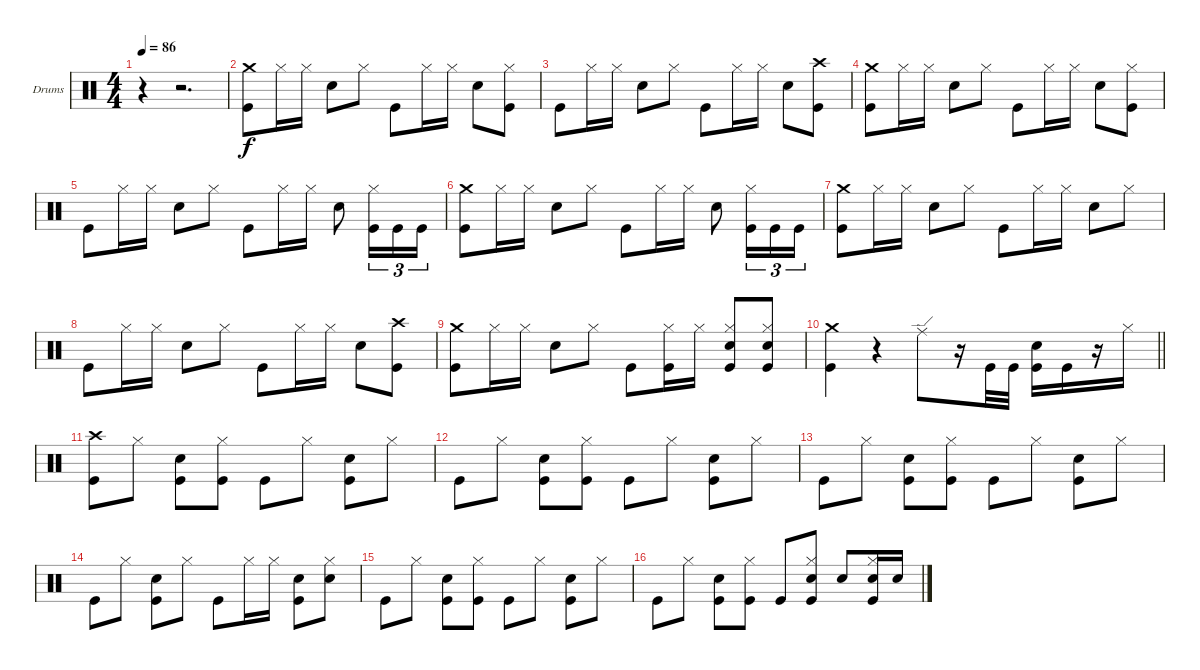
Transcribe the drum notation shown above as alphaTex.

\defaultSystemsLayout 4
\bracketExtendMode groupsimilarinstruments
\firstSystemTrackNameOrientation horizontal
\otherSystemsTrackNameOrientation horizontal
\track ("Drumkit" "Drums") {instrument percussion}
\staff {score}
\articulation defaults
\ts (4 4)
\tempo 86
\clef neutral
\scale
0.472222
\ks c
r.4{dy f} r.2{d} |
\scale
0.263889 ("Crash medium (hit)" "Kick (hit)").8 "Hi-Hat (closed)".16 "Hi-Hat (closed)".16 "Snare (hit) 2".8 "Hi-Hat (closed)".8 "Kick (hit)".8 "Hi-Hat (closed)".16 "Hi-Hat (closed)".16 "Snare (hit) 2".8 ("Hi-Hat (closed)" "Kick (hit)").8 |
\scale
0.263889 "Kick (hit)".8 "Hi-Hat (closed)".16 "Hi-Hat (closed)".16 "Snare (hit) 2".8 "Hi-Hat (closed)".8 "Kick (hit)".8 "Hi-Hat (closed)".16 "Hi-Hat (closed)".16 "Snare (hit) 2".8 ("Crash high (hit)" "Kick (hit)").8 |
\scale
0.333333 ("Crash medium (hit)" "Kick (hit)").8 "Hi-Hat (closed)".16 "Hi-Hat (closed)".16 "Snare (hit) 2".8 "Hi-Hat (closed)".8 "Kick (hit)".8 "Hi-Hat (closed)".16 "Hi-Hat (closed)".16 "Snare (hit) 2".8 ("Hi-Hat (closed)" "Kick (hit)").8 |
\scale
0.333333 "Kick (hit)".8 "Hi-Hat (closed)".16 "Hi-Hat (closed)".16 "Snare (hit) 2".8 "Hi-Hat (closed)".8 "Kick (hit)".8 "Hi-Hat (closed)".16 "Hi-Hat (closed)".16 "Snare (hit) 2".8 ("Hi-Hat (closed)" "Kick (hit)").16{tu (3 2)} "Kick (hit)".16{tu (3 2)} "Kick (hit)".16{tu (3 2)} |
\scale
0.333333 ("Crash medium (hit)" "Kick (hit)").8 "Hi-Hat (closed)".16 "Hi-Hat (closed)".16 "Snare (hit) 2".8 "Hi-Hat (closed)".8 "Kick (hit)".8 "Hi-Hat (closed)".16 "Hi-Hat (closed)".16 "Snare (hit) 2".8 ("Hi-Hat (closed)" "Kick (hit)").16{tu (3 2)} "Kick (hit)".16{tu (3 2)} "Kick (hit)".16{tu (3 2)} |
\scale
0.333333 ("Crash medium (hit)" "Kick (hit)").8 "Hi-Hat (closed)".16 "Hi-Hat (closed)".16 "Snare (hit) 2".8 "Hi-Hat (closed)".8 "Kick (hit)".8 "Hi-Hat (closed)".16 "Hi-Hat (closed)".16 "Snare (hit) 2".8 "Hi-Hat (closed)".8 |
\scale
0.333333 "Kick (hit)".8 "Hi-Hat (closed)".16 "Hi-Hat (closed)".16 "Snare (hit) 2".8 "Hi-Hat (closed)".8 "Kick (hit)".8 "Hi-Hat (closed)".16 "Hi-Hat (closed)".16 "Snare (hit) 2".8 ("Crash high (hit)" "Kick (hit)").8 |
\scale
0.333333 ("Crash medium (hit)" "Kick (hit)").8 "Hi-Hat (closed)".16 "Hi-Hat (closed)".16 "Snare (hit) 2".8 "Hi-Hat (closed)".8 "Kick (hit)".8 ("Hi-Hat (closed)" "Kick (hit)").16 "Hi-Hat (closed)".16 ("Hi-Hat (closed)" "Snare (hit) 2" "Kick (hit)").8 ("Hi-Hat (closed)" "Snare (hit) 2" "Kick (hit)").8 |
\scale
0.333333
\barLineRight lightlight
("Crash medium (hit)" "Kick (hit)").4 r.4 "Ride (edge)".8 r.16 "Kick (hit)".32 "Kick (hit)".32 ("Snare (hit) 2" "Kick (hit)").16 "Kick (hit)".16 r.16 "Hi-Hat (closed)".16 |
\scale
0.333333 ("Crash high (hit)" "Kick (hit)").8 "Hi-Hat (closed)".8 ("Snare (hit) 2" "Kick (hit)").8 ("Hi-Hat (closed)" "Kick (hit)").8 "Kick (hit)".8 "Hi-Hat (closed)".8 ("Snare (hit) 2" "Kick (hit)").8 "Hi-Hat (closed)".8 |
\scale
0.333333 "Kick (hit)".8 "Hi-Hat (closed)".8 ("Snare (hit) 2" "Kick (hit)").8 ("Hi-Hat (closed)" "Kick (hit)").8 "Kick (hit)".8 "Hi-Hat (closed)".8 ("Snare (hit) 2" "Kick (hit)").8 "Hi-Hat (closed)".8 |
\scale
0.333333 "Kick (hit)".8 "Hi-Hat (closed)".8 ("Snare (hit) 2" "Kick (hit)").8 ("Hi-Hat (closed)" "Kick (hit)").8 "Kick (hit)".8 "Hi-Hat (closed)".8 ("Snare (hit) 2" "Kick (hit)").8 "Hi-Hat (closed)".8 |
\scale
0.333333 "Kick (hit)".8 "Hi-Hat (closed)".8 ("Snare (hit) 2" "Kick (hit)").8 "Hi-Hat (closed)".8 "Kick (hit)".8 "Hi-Hat (closed)".16 "Hi-Hat (closed)".16 ("Snare (hit) 2" "Kick (hit)").8 ("Hi-Hat (closed)" "Snare (hit) 2").8 |
\scale
0.333333 "Kick (hit)".8 "Hi-Hat (closed)".8 ("Snare (hit) 2" "Kick (hit)").8 ("Hi-Hat (closed)" "Kick (hit)").8 "Kick (hit)".8 "Hi-Hat (closed)".8 ("Snare (hit) 2" "Kick (hit)").8 "Hi-Hat (closed)".8 |
\scale
0.333333 "Kick (hit)".8 "Hi-Hat (closed)".8 ("Snare (hit) 2" "Kick (hit)").8 ("Hi-Hat (closed)" "Kick (hit)").8 "Kick (hit)".8 ("Hi-Hat (closed)" "Snare (hit) 2" "Kick (hit)").8 "Snare (hit) 2".8 ("Hi-Hat (closed)" "Snare (hit) 2" "Kick (hit)").16 "Snare (hit) 2".16
